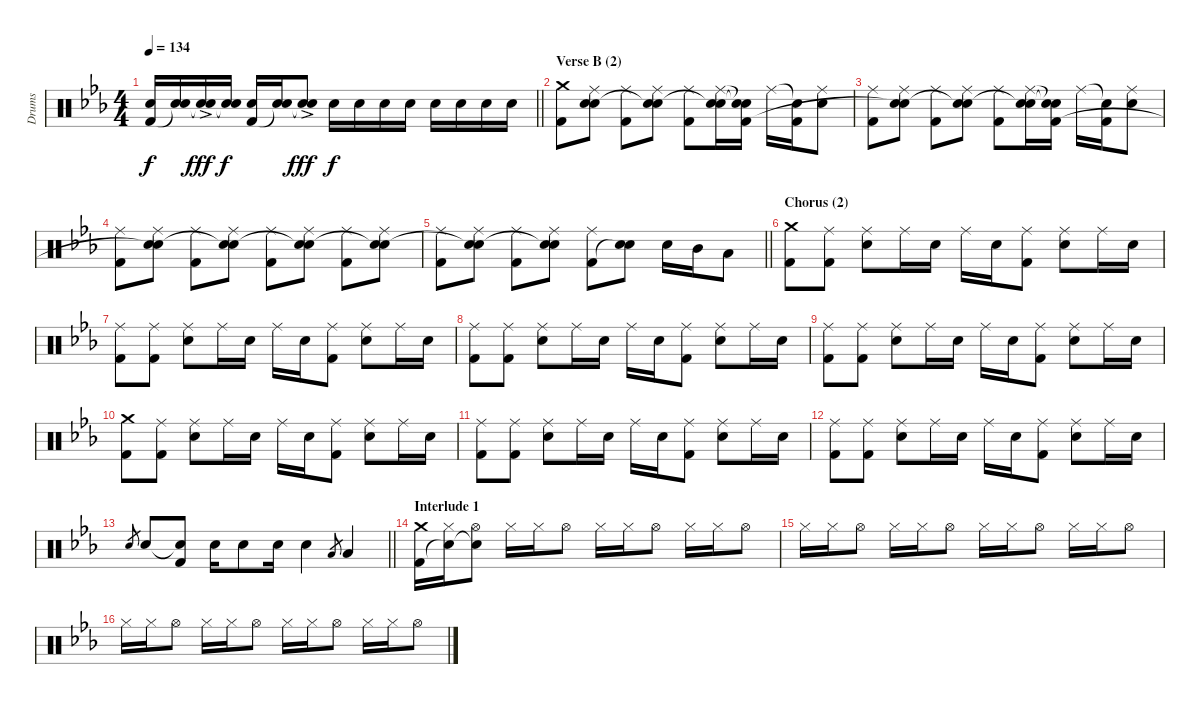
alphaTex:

\track ("Drums" "Drums") {instrument percussion}
\staff {score}
\articulation defaults
\ts (4 4)
\tempo 134
\clef neutral
\barLineRight lightlight
\ks eb
("Electric Snare (hit)" "Kick (hit) 2").16{dy f} ("Electric Snare (hit)" "Snare (hit)"{t}).16 ("Electric Snare (hit)"{ac} "Snare (hit)"{t}).16{dy fff} ("Electric Snare (hit)" "Snare (hit)"{t}).16{dy f} ("Electric Snare (hit)" "Kick (hit) 2").16 ("Electric Snare (hit)" "Snare (hit)"{t}).16 ("Electric Snare (hit)"{ac} "Snare (hit)"{t}).8{dy fff} "Electric Snare (hit)".16{dy f} "Electric Snare (hit)".16 "Electric Snare (hit)".16 "Electric Snare (hit)".16 "Electric Snare (hit)".16 "Electric Snare (hit)".16 "Electric Snare (hit)".16 "Electric Snare (hit)".16 |
\section ("" "Verse B (2)")
("Crash medium (hit)" "Kick (hit) 2").8 ("Ride (middle)" "Electric Snare (hit)" "Snare (hit)").8 ("Ride (middle)" "Kick (hit) 2").8 ("Ride (middle)" "Electric Snare (hit)" "Snare (hit)"{t}).8 ("Ride (middle)" "Kick (hit) 2").8 ("Ride (middle)" "Electric Snare (hit)" "Snare (hit)"{t}).16 ("Snare (hit)"{t} "Snare (hit)"{t} "Kick (hit) 2").16 "Ride (middle)".16 ("Snare (hit)"{t} "Kick (hit) 2").16 ("Ride (middle)" "Electric Snare (hit)").8 |
("Ride (middle)" "Kick (hit) 2").8 ("Ride (middle)" "Electric Snare (hit)" "Snare (hit)"{t}).8 ("Ride (middle)" "Kick (hit) 2").8 ("Ride (middle)" "Electric Snare (hit)" "Snare (hit)"{t}).8 ("Ride (middle)" "Kick (hit) 2").8 ("Ride (middle)" "Electric Snare (hit)" "Snare (hit)"{t}).16 ("Snare (hit)"{t} "Snare (hit)"{t} "Kick (hit) 2").16 "Ride (middle)".16 ("Snare (hit)"{t} "Kick (hit) 2").16 ("Ride (middle)" "Electric Snare (hit)").8 |
("Ride (middle)" "Kick (hit) 2").8 ("Ride (middle)" "Electric Snare (hit)" "Snare (hit)"{t}).8 ("Ride (middle)" "Kick (hit) 2").8 ("Ride (middle)" "Electric Snare (hit)" "Snare (hit)"{t}).8 ("Ride (middle)" "Kick (hit) 2").8 ("Ride (middle)" "Electric Snare (hit)" "Snare (hit)"{t}).8 ("Ride (middle)" "Kick (hit) 2").8 ("Ride (middle)" "Electric Snare (hit)" "Snare (hit)"{t}).8 |
\barLineRight lightlight
("Ride (middle)" "Kick (hit) 2").8 ("Ride (middle)" "Electric Snare (hit)" "Snare (hit)"{t}).8 ("Ride (middle)" "Kick (hit) 2").8 ("Ride (middle)" "Electric Snare (hit)" "Snare (hit)"{t}).8 ("Ride (middle)" "Kick (hit) 2").8 ("Electric Snare (hit)" "Snare (hit)"{t}).8 "Electric Snare (hit)".16 "Mid Tom (hit)".16 "Low Floor Tom (hit)".8 |
\section ("" "Chorus (2)")
("Crash medium (hit)" "Kick (hit) 2").8 ("Ride (middle)" "Kick (hit) 2").8 ("Ride (middle)" "Electric Snare (hit)").8 "Ride (middle)".16 "Electric Snare (hit)".16 "Ride (middle)".16 "Electric Snare (hit)".16 ("Ride (middle)" "Kick (hit) 2").8 ("Ride (middle)" "Electric Snare (hit)").8 "Ride (middle)".16 "Electric Snare (hit)".16 |
("Ride (middle)" "Kick (hit) 2").8 ("Ride (middle)" "Kick (hit) 2").8 ("Ride (middle)" "Electric Snare (hit)").8 "Ride (middle)".16 "Electric Snare (hit)".16 "Ride (middle)".16 "Electric Snare (hit)".16 ("Ride (middle)" "Kick (hit) 2").8 ("Ride (middle)" "Electric Snare (hit)").8 "Ride (middle)".16 "Electric Snare (hit)".16 |
("Ride (middle)" "Kick (hit) 2").8 ("Ride (middle)" "Kick (hit) 2").8 ("Ride (middle)" "Electric Snare (hit)").8 "Ride (middle)".16 "Electric Snare (hit)".16 "Ride (middle)".16 "Electric Snare (hit)".16 ("Ride (middle)" "Kick (hit) 2").8 ("Ride (middle)" "Electric Snare (hit)").8 "Ride (middle)".16 "Electric Snare (hit)".16 |
("Ride (middle)" "Kick (hit) 2").8 ("Ride (middle)" "Kick (hit) 2").8 ("Ride (middle)" "Electric Snare (hit)").8 "Ride (middle)".16 "Electric Snare (hit)".16 "Ride (middle)".16 "Electric Snare (hit)".16 ("Ride (middle)" "Kick (hit) 2").8 ("Ride (middle)" "Electric Snare (hit)").8 "Ride (middle)".16 "Electric Snare (hit)".16 |
("Crash medium (hit)" "Kick (hit) 2").8 ("Ride (middle)" "Kick (hit) 2").8 ("Ride (middle)" "Electric Snare (hit)").8 "Ride (middle)".16 "Electric Snare (hit)".16 "Ride (middle)".16 "Electric Snare (hit)".16 ("Ride (middle)" "Kick (hit) 2").8 ("Ride (middle)" "Electric Snare (hit)").8 "Ride (middle)".16 "Electric Snare (hit)".16 |
("Ride (middle)" "Kick (hit) 2").8 ("Ride (middle)" "Kick (hit) 2").8 ("Ride (middle)" "Electric Snare (hit)").8 "Ride (middle)".16 "Electric Snare (hit)".16 "Ride (middle)".16 "Electric Snare (hit)".16 ("Ride (middle)" "Kick (hit) 2").8 ("Ride (middle)" "Electric Snare (hit)").8 "Ride (middle)".16 "Electric Snare (hit)".16 |
("Ride (middle)" "Kick (hit) 2").8 ("Ride (middle)" "Kick (hit) 2").8 ("Ride (middle)" "Electric Snare (hit)").8 "Ride (middle)".16 "Electric Snare (hit)".16 "Ride (middle)".16 "Electric Snare (hit)".16 ("Ride (middle)" "Kick (hit) 2").8 ("Ride (middle)" "Electric Snare (hit)").8 "Ride (middle)".16 "Electric Snare (hit)".16 |
\barLineRight lightlight "Electric Snare (hit)".8{gr} "Electric Snare (hit)".8
("Snare (hit)"{t} "Kick (hit) 2").8 "Electric Snare (hit)".16 "Electric Snare (hit)".8 "Electric Snare (hit)".16 "Electric Snare (hit)".4 "Low Floor Tom (hit)".8{gr} "Low Floor Tom (hit)".4 |
\section ("" "Interlude 1")
("Crash medium (hit)" "Kick (hit) 2").16 ("Hi-Hat (closed)" "Snare (hit)"{t}).16 ("Hi-Hat (open)" "Snare (hit)"{t}).8 "Hi-Hat (closed)".16 "Hi-Hat (closed)".16 "Hi-Hat (open)".8 "Hi-Hat (closed)".16 "Hi-Hat (closed)".16 "Hi-Hat (open)".8 "Hi-Hat (closed)".16 "Hi-Hat (closed)".16 "Hi-Hat (open)".8 |
"Hi-Hat (closed)".16 "Hi-Hat (closed)".16 "Hi-Hat (open)".8 "Hi-Hat (closed)".16 "Hi-Hat (closed)".16 "Hi-Hat (open)".8 "Hi-Hat (closed)".16 "Hi-Hat (closed)".16 "Hi-Hat (open)".8 "Hi-Hat (closed)".16 "Hi-Hat (closed)".16 "Hi-Hat (open)".8 |
"Hi-Hat (closed)".16 "Hi-Hat (closed)".16 "Hi-Hat (open)".8 "Hi-Hat (closed)".16 "Hi-Hat (closed)".16 "Hi-Hat (open)".8 "Hi-Hat (closed)".16 "Hi-Hat (closed)".16 "Hi-Hat (open)".8 "Hi-Hat (closed)".16 "Hi-Hat (closed)".16 "Hi-Hat (open)".8
